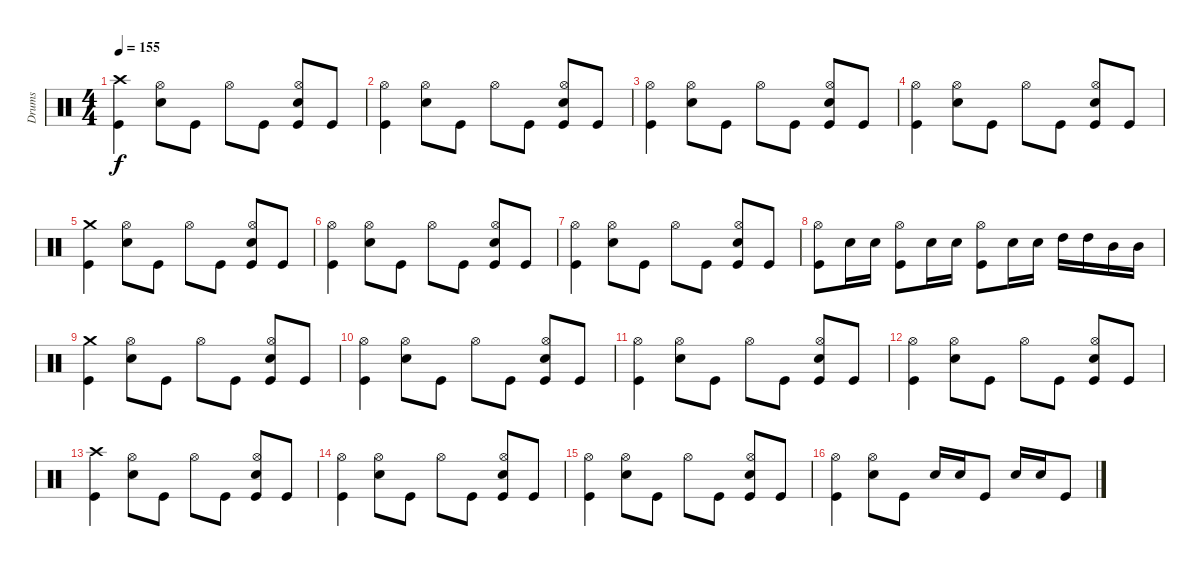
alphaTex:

\track ("Drums" "Drums") {instrument percussion}
\staff {score}
\articulation defaults
\ts (4 4)
\tempo 155
\clef neutral
\ks c
("Crash high (hit)" "Kick (hit)").4{dy f} ("Hi-Hat (open)" "Snare (hit) 2").8 "Kick (hit)".8 "Hi-Hat (open)".8 "Kick (hit)".8 ("Hi-Hat (open)" "Snare (hit) 2" "Kick (hit)").8 "Kick (hit)".8 |
("Hi-Hat (open)" "Kick (hit)").4 ("Hi-Hat (open)" "Snare (hit) 2").8 "Kick (hit)".8 "Hi-Hat (open)".8 "Kick (hit)".8 ("Hi-Hat (open)" "Snare (hit) 2" "Kick (hit)").8 "Kick (hit)".8 |
("Hi-Hat (open)" "Kick (hit)").4 ("Hi-Hat (open)" "Snare (hit) 2").8 "Kick (hit)".8 "Hi-Hat (open)".8 "Kick (hit)".8 ("Hi-Hat (open)" "Snare (hit) 2" "Kick (hit)").8 "Kick (hit)".8 |
("Hi-Hat (open)" "Kick (hit)").4 ("Hi-Hat (open)" "Snare (hit) 2").8 "Kick (hit)".8 "Hi-Hat (open)".8 "Kick (hit)".8 ("Hi-Hat (open)" "Snare (hit) 2" "Kick (hit)").8 "Kick (hit)".8 |
("Crash medium (hit)" "Kick (hit)").4 ("Hi-Hat (open)" "Snare (hit) 2").8 "Kick (hit)".8 "Hi-Hat (open)".8 "Kick (hit)".8 ("Hi-Hat (open)" "Snare (hit) 2" "Kick (hit)").8 "Kick (hit)".8 |
("Hi-Hat (open)" "Kick (hit)").4 ("Hi-Hat (open)" "Snare (hit) 2").8 "Kick (hit)".8 "Hi-Hat (open)".8 "Kick (hit)".8 ("Hi-Hat (open)" "Snare (hit) 2" "Kick (hit)").8 "Kick (hit)".8 |
("Hi-Hat (open)" "Kick (hit)").4 ("Hi-Hat (open)" "Snare (hit) 2").8 "Kick (hit)".8 "Hi-Hat (open)".8 "Kick (hit)".8 ("Hi-Hat (open)" "Snare (hit) 2" "Kick (hit)").8 "Kick (hit)".8 |
("Hi-Hat (open)" "Kick (hit)").8 "Snare (hit) 2".16 "Snare (hit) 2".16 ("Hi-Hat (open)" "Kick (hit)").8 "Snare (hit) 2".16 "Snare (hit) 2".16 ("Hi-Hat (open)" "Kick (hit)").8 "Snare (hit) 2".16 "Snare (hit) 2".16 "High Tom (hit)".16 "High Tom (hit)".16 "Mid Tom (hit)".16 "Mid Tom (hit)".16 |
("Crash medium (hit)" "Kick (hit)").4 ("Hi-Hat (open)" "Snare (hit) 2").8 "Kick (hit)".8 "Hi-Hat (open)".8 "Kick (hit)".8 ("Hi-Hat (open)" "Snare (hit) 2" "Kick (hit)").8 "Kick (hit)".8 |
("Hi-Hat (open)" "Kick (hit)").4 ("Hi-Hat (open)" "Snare (hit) 2").8 "Kick (hit)".8 "Hi-Hat (open)".8 "Kick (hit)".8 ("Hi-Hat (open)" "Snare (hit) 2" "Kick (hit)").8 "Kick (hit)".8 |
("Hi-Hat (open)" "Kick (hit)").4 ("Hi-Hat (open)" "Snare (hit) 2").8 "Kick (hit)".8 "Hi-Hat (open)".8 "Kick (hit)".8 ("Hi-Hat (open)" "Snare (hit) 2" "Kick (hit)").8 "Kick (hit)".8 |
("Hi-Hat (open)" "Kick (hit)").4 ("Hi-Hat (open)" "Snare (hit) 2").8 "Kick (hit)".8 "Hi-Hat (open)".8 "Kick (hit)".8 ("Hi-Hat (open)" "Snare (hit) 2" "Kick (hit)").8 "Kick (hit)".8 |
("Crash high (hit)" "Kick (hit)").4 ("Hi-Hat (open)" "Snare (hit) 2").8 "Kick (hit)".8 "Hi-Hat (open)".8 "Kick (hit)".8 ("Hi-Hat (open)" "Snare (hit) 2" "Kick (hit)").8 "Kick (hit)".8 |
("Hi-Hat (open)" "Kick (hit)").4 ("Hi-Hat (open)" "Snare (hit) 2").8 "Kick (hit)".8 "Hi-Hat (open)".8 "Kick (hit)".8 ("Hi-Hat (open)" "Snare (hit) 2" "Kick (hit)").8 "Kick (hit)".8 |
("Hi-Hat (open)" "Kick (hit)").4 ("Hi-Hat (open)" "Snare (hit) 2").8 "Kick (hit)".8 "Hi-Hat (open)".8 "Kick (hit)".8 ("Hi-Hat (open)" "Snare (hit) 2" "Kick (hit)").8 "Kick (hit)".8 |
("Hi-Hat (open)" "Kick (hit)").4 ("Hi-Hat (open)" "Snare (hit) 2").8 "Kick (hit)".8 "Snare (hit) 2".16 "Snare (hit) 2".16 "Kick (hit)".8 "Snare (hit) 2".16 "Snare (hit) 2".16 "Kick (hit)".8
